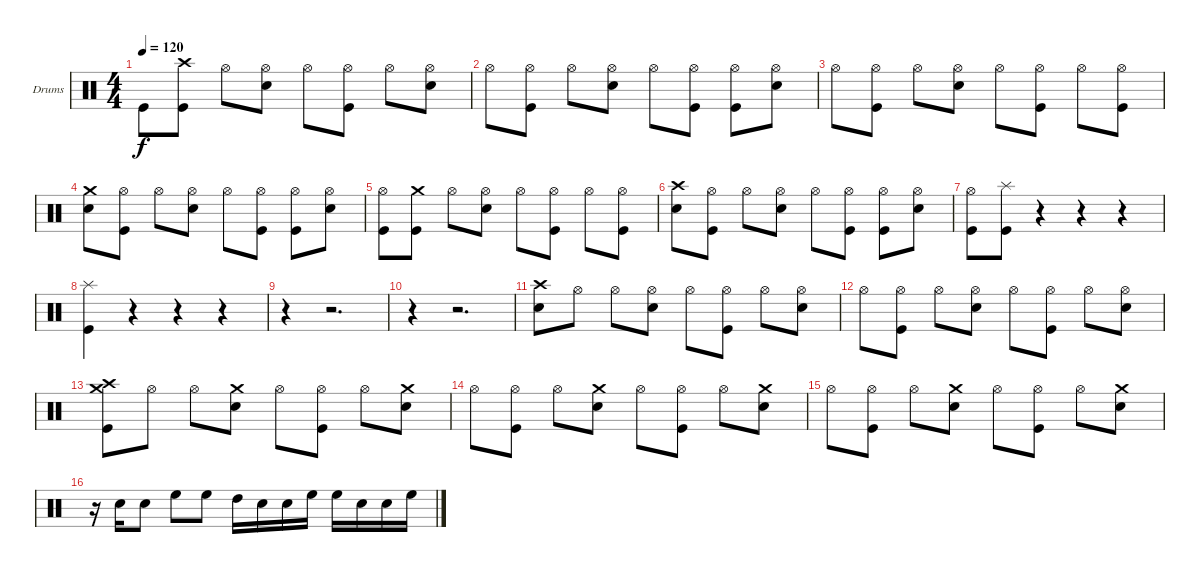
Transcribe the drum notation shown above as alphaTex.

\bracketExtendMode groupsimilarinstruments
\firstSystemTrackNameOrientation horizontal
\otherSystemsTrackNameOrientation horizontal
\track ("Drumkit" "Drums") {instrument percussion}
\staff {score}
\articulation defaults
\ts (4 4)
\tempo 120
\clef neutral
\ks c "Kick (hit)".8{dy f}
("Crash high (hit)" "Kick (hit)").8 "Hi-Hat (open)".8 ("Hi-Hat (open)" "Snare (hit) 2").8 "Hi-Hat (open)".8 ("Hi-Hat (open)" "Kick (hit)").8 "Hi-Hat (open)".8 ("Hi-Hat (open)" "Snare (hit) 2").8 |
"Hi-Hat (open)".8 ("Hi-Hat (open)" "Kick (hit)").8 "Hi-Hat (open)".8 ("Hi-Hat (open)" "Snare (hit) 2").8 "Hi-Hat (open)".8 ("Hi-Hat (open)" "Kick (hit)").8 ("Hi-Hat (open)" "Kick (hit)").8 ("Hi-Hat (open)" "Snare (hit) 2").8 |
"Hi-Hat (open)".8 ("Hi-Hat (open)" "Kick (hit)").8 "Hi-Hat (open)".8 ("Hi-Hat (open)" "Snare (hit) 2").8 "Hi-Hat (open)".8 ("Hi-Hat (open)" "Kick (hit)").8 "Hi-Hat (open)".8 ("Hi-Hat (open)" "Kick (hit)").8 |
("Crash medium (hit)" "Snare (hit) 2").8 ("Hi-Hat (open)" "Kick (hit)").8 "Hi-Hat (open)".8 ("Hi-Hat (open)" "Snare (hit) 2").8 "Hi-Hat (open)".8 ("Hi-Hat (open)" "Kick (hit)").8 ("Hi-Hat (open)" "Kick (hit)").8 ("Hi-Hat (open)" "Snare (hit) 2").8 |
("Hi-Hat (open)" "Kick (hit)").8 ("Crash medium (hit)" "Kick (hit)").8 "Hi-Hat (open)".8 ("Hi-Hat (open)" "Snare (hit) 2").8 "Hi-Hat (open)".8 ("Hi-Hat (open)" "Kick (hit)").8 "Hi-Hat (open)".8 ("Hi-Hat (open)" "Kick (hit)").8 |
("Crash high (hit)" "Snare (hit) 2").8 ("Hi-Hat (open)" "Kick (hit)").8 "Hi-Hat (open)".8 ("Hi-Hat (open)" "Snare (hit) 2").8 "Hi-Hat (open)".8 ("Hi-Hat (open)" "Kick (hit)").8 ("Hi-Hat (open)" "Kick (hit)").8 ("Hi-Hat (open)" "Snare (hit) 2").8 |
("Hi-Hat (open)" "Kick (hit)").8 ("Splash (hit)" "Kick (hit)").8 r.4 r.4 r.4 |
("Splash (hit)" "Kick (hit)").4 r.4 r.4 r.4 |
r.4 r.2{d} |
r.4 r.2{d} |
("Crash high (hit)" "Snare (hit) 2").8 "Hi-Hat (open)".8 "Hi-Hat (open)".8 ("Hi-Hat (open)" "Snare (hit) 2").8 "Hi-Hat (open)".8 ("Hi-Hat (open)" "Kick (hit)").8 "Hi-Hat (open)".8 ("Hi-Hat (open)" "Snare (hit) 2").8 |
"Hi-Hat (open)".8 ("Hi-Hat (open)" "Kick (hit)").8 "Hi-Hat (open)".8 ("Hi-Hat (open)" "Snare (hit) 2").8 "Hi-Hat (open)".8 ("Hi-Hat (open)" "Kick (hit)").8 "Hi-Hat (open)".8 ("Hi-Hat (open)" "Snare (hit) 2").8 |
("Crash high (hit)" "Crash medium (hit)" "Kick (hit)").8 "Hi-Hat (open)".8 "Hi-Hat (open)".8 ("Crash medium (hit)" "Snare (hit) 2").8 "Hi-Hat (open)".8 ("Hi-Hat (open)" "Kick (hit)").8 "Hi-Hat (open)".8 ("Crash medium (hit)" "Snare (hit) 2").8 |
"Hi-Hat (open)".8 ("Hi-Hat (open)" "Kick (hit)").8 "Hi-Hat (open)".8 ("Crash medium (hit)" "Snare (hit) 2").8 "Hi-Hat (open)".8 ("Hi-Hat (open)" "Kick (hit)").8 "Hi-Hat (open)".8 ("Crash medium (hit)" "Snare (hit) 2").8 |
"Hi-Hat (open)".8 ("Hi-Hat (open)" "Kick (hit)").8 "Hi-Hat (open)".8 ("Crash medium (hit)" "Snare (hit) 2").8 "Hi-Hat (open)".8 ("Hi-Hat (open)" "Kick (hit)").8 "Hi-Hat (open)".8 ("Crash medium (hit)" "Snare (hit) 2").8 |
r.16 "Snare (hit) 2".16 "Snare (hit) 2".8 "High Floor Tom (hit)".8 "High Floor Tom (hit)".8 "High Tom (hit)".16 "Snare (hit) 2".16 "Snare (hit) 2".16 "High Floor Tom (hit)".16 "High Floor Tom (hit)".16 "Snare (hit) 2".16 "Snare (hit) 2".16 "High Floor Tom (hit)".16
